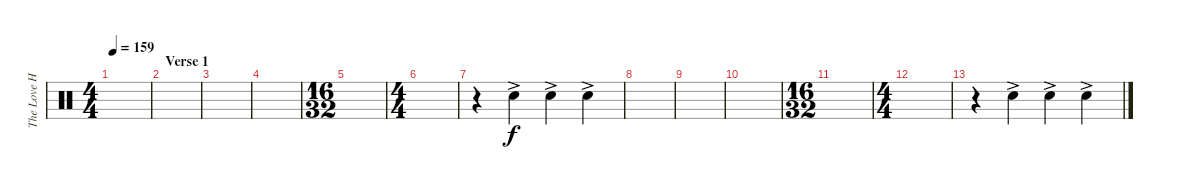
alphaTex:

\track ("The Love Haters (Hand Clap)(Drums)" "The Love H") {instrument percussion}
\staff {score}
\articulation defaults
\ts (4 4)
\tempo 159
\clef neutral
\ks c
|
\section ("" "Verse 1")
|
|
|
\ts (16 32)
|
\ts (4 4)
|
r.4 "Hand Clap (hit)"{ac}.4 "Hand Clap (hit)"{ac}.4 "Hand Clap (hit)"{ac}.4 |
|
|
|
\ts (16 32)
|
\ts (4 4)
|
r.4 "Hand Clap (hit)"{ac}.4 "Hand Clap (hit)"{ac}.4 "Hand Clap (hit)"{ac}.4
